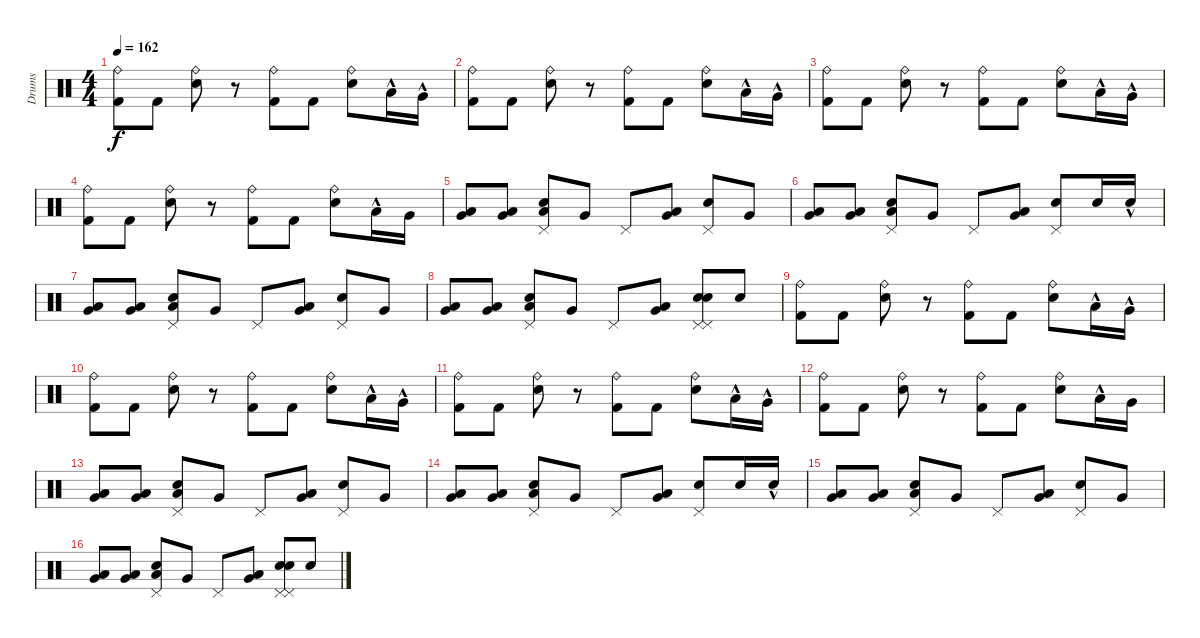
\track ("Drums" "Drums") {instrument percussion}
\staff {score}
\articulation defaults
\ts (4 4)
\tempo 162
\clef neutral
\ks c
("Ride (bell)" "Kick (hit) 2").8{dy f} "Kick (hit) 2".8 ("Ride (bell)" "Electric Snare (hit)").8 r.8 ("Ride (bell)" "Kick (hit) 2").8 "Kick (hit) 2".8 ("Ride (bell)" "Electric Snare (hit)").8 "Low Tom (hit)"{hac}.16 "Very Low Tom (hit)"{hac}.16 |
("Ride (bell)" "Kick (hit) 2").8 "Kick (hit) 2".8 ("Ride (bell)" "Electric Snare (hit)").8 r.8 ("Ride (bell)" "Kick (hit) 2").8 "Kick (hit) 2".8 ("Ride (bell)" "Electric Snare (hit)").8 "Low Tom (hit)"{hac}.16 "Very Low Tom (hit)"{hac}.16 |
("Ride (bell)" "Kick (hit) 2").8 "Kick (hit) 2".8 ("Ride (bell)" "Electric Snare (hit)").8 r.8 ("Ride (bell)" "Kick (hit) 2").8 "Kick (hit) 2".8 ("Ride (bell)" "Electric Snare (hit)").8 "Low Tom (hit)"{hac}.16 "Very Low Tom (hit)"{hac}.16 |
("Ride (bell)" "Kick (hit) 2").8 "Kick (hit) 2".8 ("Ride (bell)" "Electric Snare (hit)").8 r.8 ("Ride (bell)" "Kick (hit) 2").8 "Kick (hit) 2".8 ("Ride (bell)" "Electric Snare (hit)").8 "Low Tom (hit)"{hac}.16 "Very Low Tom (hit)".16 |
("Very Low Tom (hit)" "Low Floor Tom (hit)").8 ("Very Low Tom (hit)" "Low Floor Tom (hit)").8 ("Electric Snare (hit)" "Pedal Hi-Hat (hit)" "Low Floor Tom (hit)").8 "Very Low Tom (hit)".8 "Pedal Hi-Hat (hit)".8 ("Very Low Tom (hit)" "Low Floor Tom (hit)").8 ("Electric Snare (hit)" "Pedal Hi-Hat (hit)").8 "Very Low Tom (hit)".8 |
("Very Low Tom (hit)" "Low Floor Tom (hit)").8 ("Very Low Tom (hit)" "Low Floor Tom (hit)").8 ("Electric Snare (hit)" "Pedal Hi-Hat (hit)" "Low Floor Tom (hit)").8 "Very Low Tom (hit)".8 "Pedal Hi-Hat (hit)".8 ("Very Low Tom (hit)" "Low Floor Tom (hit)").8 ("Electric Snare (hit)" "Pedal Hi-Hat (hit)").8 "Electric Snare (hit)".16 "Electric Snare (hit)"{hac}.16 |
("Very Low Tom (hit)" "Low Floor Tom (hit)").8 ("Very Low Tom (hit)" "Low Floor Tom (hit)").8 ("Electric Snare (hit)" "Pedal Hi-Hat (hit)" "Low Floor Tom (hit)").8 "Very Low Tom (hit)".8 "Pedal Hi-Hat (hit)".8 ("Very Low Tom (hit)" "Low Floor Tom (hit)").8 ("Electric Snare (hit)" "Pedal Hi-Hat (hit)").8 "Very Low Tom (hit)".8 |
("Very Low Tom (hit)" "Low Floor Tom (hit)").8 ("Very Low Tom (hit)" "Low Floor Tom (hit)").8 ("Electric Snare (hit)" "Pedal Hi-Hat (hit)" "Low Floor Tom (hit)").8 "Very Low Tom (hit)".8 "Pedal Hi-Hat (hit)".8 ("Very Low Tom (hit)" "Low Floor Tom (hit)").8 ("Electric Snare (hit)" "Pedal Hi-Hat (hit)" "Electric Snare (hit)" "Pedal Hi-Hat (hit)").8 "Electric Snare (hit)".8 |
("Ride (bell)" "Kick (hit) 2").8 "Kick (hit) 2".8 ("Ride (bell)" "Electric Snare (hit)").8 r.8 ("Ride (bell)" "Kick (hit) 2").8 "Kick (hit) 2".8 ("Ride (bell)" "Electric Snare (hit)").8 "Low Tom (hit)"{hac}.16 "Very Low Tom (hit)"{hac}.16 |
("Ride (bell)" "Kick (hit) 2").8 "Kick (hit) 2".8 ("Ride (bell)" "Electric Snare (hit)").8 r.8 ("Ride (bell)" "Kick (hit) 2").8 "Kick (hit) 2".8 ("Ride (bell)" "Electric Snare (hit)").8 "Low Tom (hit)"{hac}.16 "Very Low Tom (hit)"{hac}.16 |
("Ride (bell)" "Kick (hit) 2").8 "Kick (hit) 2".8 ("Ride (bell)" "Electric Snare (hit)").8 r.8 ("Ride (bell)" "Kick (hit) 2").8 "Kick (hit) 2".8 ("Ride (bell)" "Electric Snare (hit)").8 "Low Tom (hit)"{hac}.16 "Very Low Tom (hit)"{hac}.16 |
("Ride (bell)" "Kick (hit) 2").8 "Kick (hit) 2".8 ("Ride (bell)" "Electric Snare (hit)").8 r.8 ("Ride (bell)" "Kick (hit) 2").8 "Kick (hit) 2".8 ("Ride (bell)" "Electric Snare (hit)").8 "Low Tom (hit)"{hac}.16 "Very Low Tom (hit)".16 |
("Very Low Tom (hit)" "Low Floor Tom (hit)").8 ("Very Low Tom (hit)" "Low Floor Tom (hit)").8 ("Electric Snare (hit)" "Pedal Hi-Hat (hit)" "Low Floor Tom (hit)").8 "Very Low Tom (hit)".8 "Pedal Hi-Hat (hit)".8 ("Very Low Tom (hit)" "Low Floor Tom (hit)").8 ("Electric Snare (hit)" "Pedal Hi-Hat (hit)").8 "Very Low Tom (hit)".8 |
("Very Low Tom (hit)" "Low Floor Tom (hit)").8 ("Very Low Tom (hit)" "Low Floor Tom (hit)").8 ("Electric Snare (hit)" "Pedal Hi-Hat (hit)" "Low Floor Tom (hit)").8 "Very Low Tom (hit)".8 "Pedal Hi-Hat (hit)".8 ("Very Low Tom (hit)" "Low Floor Tom (hit)").8 ("Electric Snare (hit)" "Pedal Hi-Hat (hit)").8 "Electric Snare (hit)".16 "Electric Snare (hit)"{hac}.16 |
("Very Low Tom (hit)" "Low Floor Tom (hit)").8 ("Very Low Tom (hit)" "Low Floor Tom (hit)").8 ("Electric Snare (hit)" "Pedal Hi-Hat (hit)" "Low Floor Tom (hit)").8 "Very Low Tom (hit)".8 "Pedal Hi-Hat (hit)".8 ("Very Low Tom (hit)" "Low Floor Tom (hit)").8 ("Electric Snare (hit)" "Pedal Hi-Hat (hit)").8 "Very Low Tom (hit)".8 |
("Very Low Tom (hit)" "Low Floor Tom (hit)").8 ("Very Low Tom (hit)" "Low Floor Tom (hit)").8 ("Electric Snare (hit)" "Pedal Hi-Hat (hit)" "Low Floor Tom (hit)").8 "Very Low Tom (hit)".8 "Pedal Hi-Hat (hit)".8 ("Very Low Tom (hit)" "Low Floor Tom (hit)").8 ("Electric Snare (hit)" "Pedal Hi-Hat (hit)" "Electric Snare (hit)" "Pedal Hi-Hat (hit)").8 "Electric Snare (hit)".8
